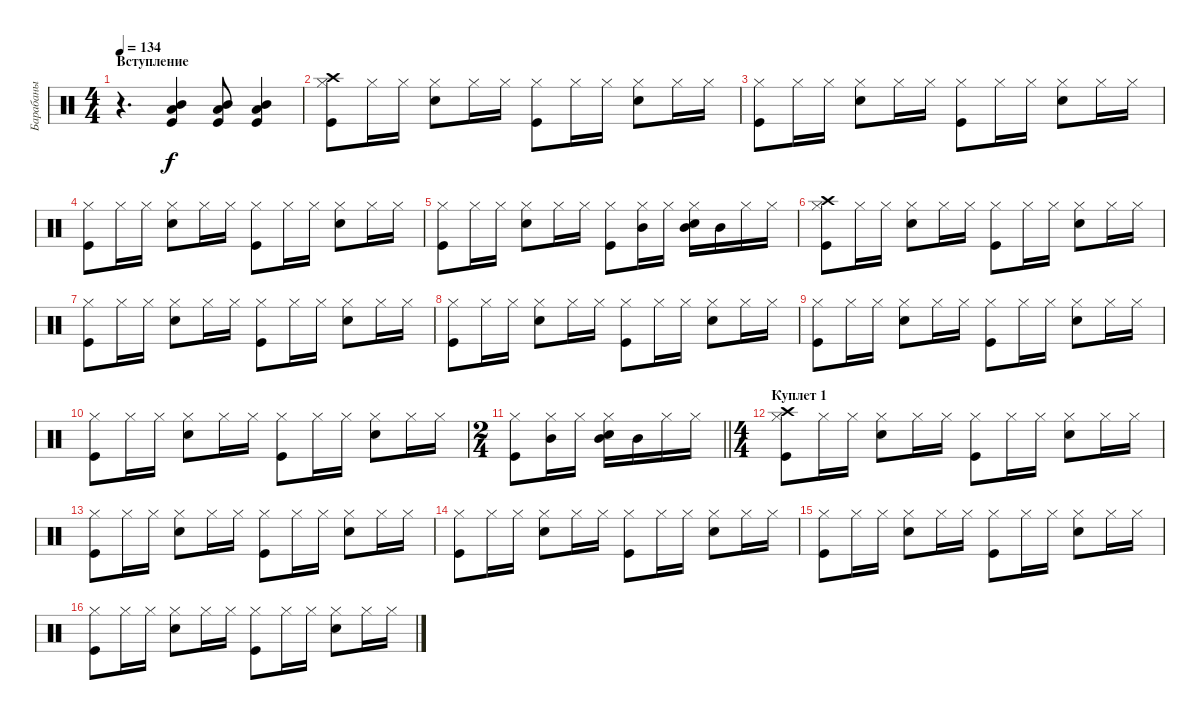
\track ("Барабаны" "Барабаны") {instrument percussion}
\staff {score}
\articulation defaults
\ts (4 4)
\section ("" "Вступление")
\tempo 134
\clef neutral
\ks c
r.4{d dy f} ("Kick (hit)" "Low Floor Tom (hit)" "Mid Tom (hit)").4 ("Kick (hit)" "Low Floor Tom (hit)" "Mid Tom (hit)").8 ("Kick (hit)" "Low Floor Tom (hit)" "Mid Tom (hit)").4 |
("Kick (hit)" "Hi-Hat (closed)" "Crash high (hit)").8 "Hi-Hat (closed)".16 "Hi-Hat (closed)".16 ("Snare (hit) 2" "Hi-Hat (closed)").8 "Hi-Hat (closed)".16 "Hi-Hat (closed)".16 ("Kick (hit)" "Hi-Hat (closed)").8 "Hi-Hat (closed)".16 "Hi-Hat (closed)".16 ("Snare (hit) 2" "Hi-Hat (closed)").8 "Hi-Hat (closed)".16 "Hi-Hat (closed)".16 |
("Kick (hit)" "Hi-Hat (closed)").8 "Hi-Hat (closed)".16 "Hi-Hat (closed)".16 ("Snare (hit) 2" "Hi-Hat (closed)").8 "Hi-Hat (closed)".16 "Hi-Hat (closed)".16 ("Kick (hit)" "Hi-Hat (closed)").8 "Hi-Hat (closed)".16 "Hi-Hat (closed)".16 ("Snare (hit) 2" "Hi-Hat (closed)").8 "Hi-Hat (closed)".16 "Hi-Hat (closed)".16 |
("Kick (hit)" "Hi-Hat (closed)").8 "Hi-Hat (closed)".16 "Hi-Hat (closed)".16 ("Snare (hit) 2" "Hi-Hat (closed)").8 "Hi-Hat (closed)".16 "Hi-Hat (closed)".16 ("Kick (hit)" "Hi-Hat (closed)").8 "Hi-Hat (closed)".16 "Hi-Hat (closed)".16 ("Snare (hit) 2" "Hi-Hat (closed)").8 "Hi-Hat (closed)".16 "Hi-Hat (closed)".16 |
("Kick (hit)" "Hi-Hat (closed)").8 "Hi-Hat (closed)".16 "Hi-Hat (closed)".16 ("Snare (hit) 2" "Hi-Hat (closed)").8 "Hi-Hat (closed)".16 "Hi-Hat (closed)".16 ("Kick (hit)" "Hi-Hat (closed)").8 ("Hi-Hat (closed)" "Mid Tom (hit)").16 "Hi-Hat (closed)".16 ("Snare (hit) 2" "Hi-Hat (closed)" "Mid Tom (hit)").16 "Mid Tom (hit)".16 "Hi-Hat (closed)".16 "Hi-Hat (closed)".16 |
("Kick (hit)" "Hi-Hat (closed)" "Crash high (hit)").8 "Hi-Hat (closed)".16 "Hi-Hat (closed)".16 ("Snare (hit) 2" "Hi-Hat (closed)").8 "Hi-Hat (closed)".16 "Hi-Hat (closed)".16 ("Kick (hit)" "Hi-Hat (closed)").8 "Hi-Hat (closed)".16 "Hi-Hat (closed)".16 ("Snare (hit) 2" "Hi-Hat (closed)").8 "Hi-Hat (closed)".16 "Hi-Hat (closed)".16 |
("Kick (hit)" "Hi-Hat (closed)").8 "Hi-Hat (closed)".16 "Hi-Hat (closed)".16 ("Snare (hit) 2" "Hi-Hat (closed)").8 "Hi-Hat (closed)".16 "Hi-Hat (closed)".16 ("Kick (hit)" "Hi-Hat (closed)").8 "Hi-Hat (closed)".16 "Hi-Hat (closed)".16 ("Snare (hit) 2" "Hi-Hat (closed)").8 "Hi-Hat (closed)".16 "Hi-Hat (closed)".16 |
("Kick (hit)" "Hi-Hat (closed)").8 "Hi-Hat (closed)".16 "Hi-Hat (closed)".16 ("Snare (hit) 2" "Hi-Hat (closed)").8 "Hi-Hat (closed)".16 "Hi-Hat (closed)".16 ("Kick (hit)" "Hi-Hat (closed)").8 "Hi-Hat (closed)".16 "Hi-Hat (closed)".16 ("Snare (hit) 2" "Hi-Hat (closed)").8 "Hi-Hat (closed)".16 "Hi-Hat (closed)".16 |
("Kick (hit)" "Hi-Hat (closed)").8 "Hi-Hat (closed)".16 "Hi-Hat (closed)".16 ("Snare (hit) 2" "Hi-Hat (closed)").8 "Hi-Hat (closed)".16 "Hi-Hat (closed)".16 ("Kick (hit)" "Hi-Hat (closed)").8 "Hi-Hat (closed)".16 "Hi-Hat (closed)".16 ("Snare (hit) 2" "Hi-Hat (closed)").8 "Hi-Hat (closed)".16 "Hi-Hat (closed)".16 |
("Kick (hit)" "Hi-Hat (closed)").8 "Hi-Hat (closed)".16 "Hi-Hat (closed)".16 ("Snare (hit) 2" "Hi-Hat (closed)").8 "Hi-Hat (closed)".16 "Hi-Hat (closed)".16 ("Kick (hit)" "Hi-Hat (closed)").8 "Hi-Hat (closed)".16 "Hi-Hat (closed)".16 ("Snare (hit) 2" "Hi-Hat (closed)").8 "Hi-Hat (closed)".16 "Hi-Hat (closed)".16 |
\ts (2 4)
\barLineRight lightlight
("Kick (hit)" "Hi-Hat (closed)").8 ("Hi-Hat (closed)" "Mid Tom (hit)").16 "Hi-Hat (closed)".16 ("Snare (hit) 2" "Hi-Hat (closed)" "Mid Tom (hit)").16 "Mid Tom (hit)".16 "Hi-Hat (closed)".16 "Hi-Hat (closed)".16 |
\ts (4 4)
\section ("" "Куплет 1")
("Kick (hit)" "Hi-Hat (closed)" "Crash high (hit)").8 "Hi-Hat (closed)".16 "Hi-Hat (closed)".16 ("Snare (hit) 2" "Hi-Hat (closed)").8 "Hi-Hat (closed)".16 "Hi-Hat (closed)".16 ("Kick (hit)" "Hi-Hat (closed)").8 "Hi-Hat (closed)".16 "Hi-Hat (closed)".16 ("Snare (hit) 2" "Hi-Hat (closed)").8 "Hi-Hat (closed)".16 "Hi-Hat (closed)".16 |
("Kick (hit)" "Hi-Hat (closed)").8 "Hi-Hat (closed)".16 "Hi-Hat (closed)".16 ("Snare (hit) 2" "Hi-Hat (closed)").8 "Hi-Hat (closed)".16 "Hi-Hat (closed)".16 ("Kick (hit)" "Hi-Hat (closed)").8 "Hi-Hat (closed)".16 "Hi-Hat (closed)".16 ("Snare (hit) 2" "Hi-Hat (closed)").8 "Hi-Hat (closed)".16 "Hi-Hat (closed)".16 |
("Kick (hit)" "Hi-Hat (closed)").8 "Hi-Hat (closed)".16 "Hi-Hat (closed)".16 ("Snare (hit) 2" "Hi-Hat (closed)").8 "Hi-Hat (closed)".16 "Hi-Hat (closed)".16 ("Kick (hit)" "Hi-Hat (closed)").8 "Hi-Hat (closed)".16 "Hi-Hat (closed)".16 ("Snare (hit) 2" "Hi-Hat (closed)").8 "Hi-Hat (closed)".16 "Hi-Hat (closed)".16 |
("Kick (hit)" "Hi-Hat (closed)").8 "Hi-Hat (closed)".16 "Hi-Hat (closed)".16 ("Snare (hit) 2" "Hi-Hat (closed)").8 "Hi-Hat (closed)".16 "Hi-Hat (closed)".16 ("Kick (hit)" "Hi-Hat (closed)").8 "Hi-Hat (closed)".16 "Hi-Hat (closed)".16 ("Snare (hit) 2" "Hi-Hat (closed)").8 "Hi-Hat (closed)".16 "Hi-Hat (closed)".16 |
("Kick (hit)" "Hi-Hat (closed)").8 "Hi-Hat (closed)".16 "Hi-Hat (closed)".16 ("Snare (hit) 2" "Hi-Hat (closed)").8 "Hi-Hat (closed)".16 "Hi-Hat (closed)".16 ("Kick (hit)" "Hi-Hat (closed)").8 "Hi-Hat (closed)".16 "Hi-Hat (closed)".16 ("Snare (hit) 2" "Hi-Hat (closed)").8 "Hi-Hat (closed)".16 "Hi-Hat (closed)".16
